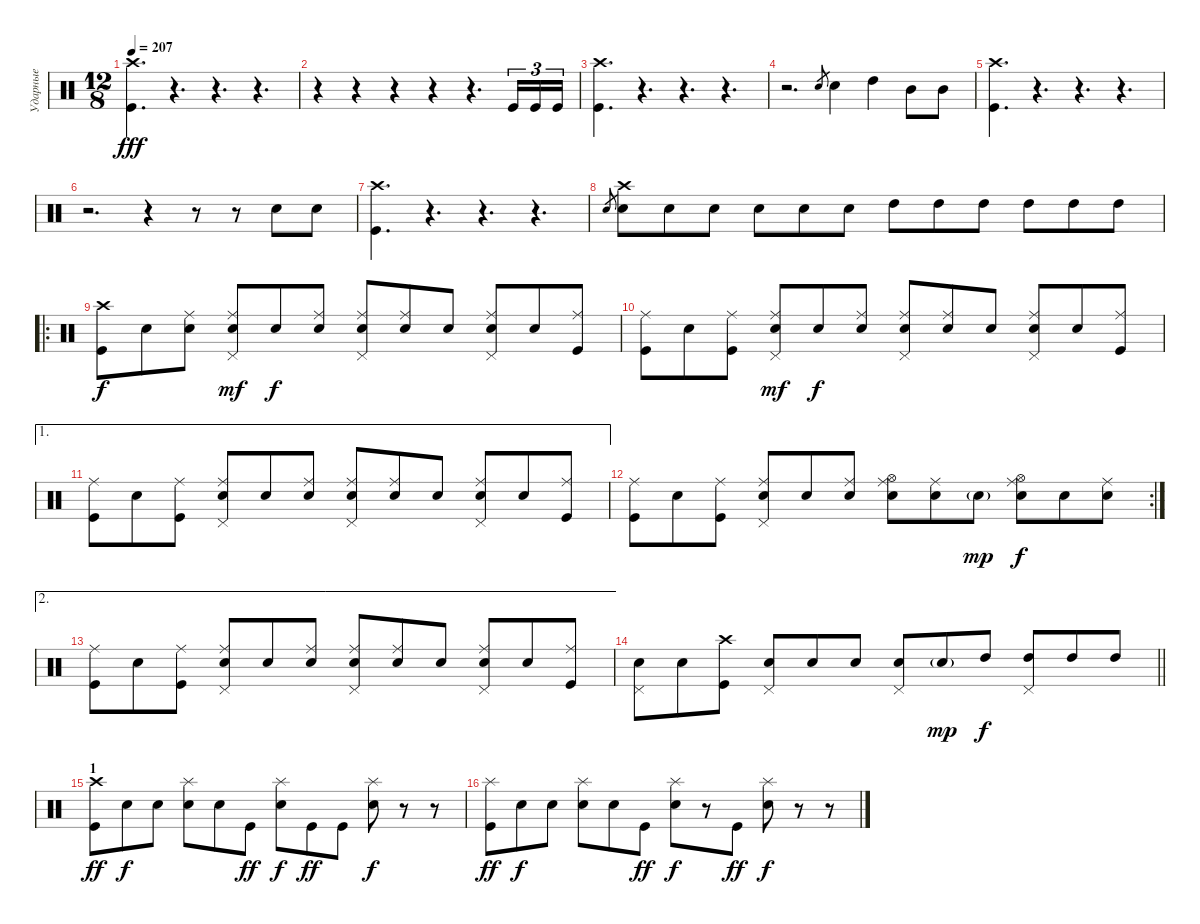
\track ("Ударные" "Ударные") {instrument percussion}
\staff {score}
\articulation defaults
\ts (12 8)
\tempo 207
\clef neutral
\ks c
("Crash high (hit)" "Kick (hit)").4{d dy fff} r.4{d} r.4{d} r.4{d} |
r.4 r.4 r.4 r.4 r.4{d} "Kick (hit)".16{tu (3 2)} "Kick (hit)".16{tu (3 2)} "Kick (hit)".16{tu (3 2)} |
("Crash high (hit)" "Kick (hit)").4{d} r.4{d} r.4{d} r.4{d} |
r.2{d} "Electric Snare (hit)".8{gr} "Electric Snare (hit)".4 "High Tom (hit)".4 "Mid Tom (hit)".8 "Mid Tom (hit)".8 |
("Crash high (hit)" "Kick (hit)").4{d} r.4{d} r.4{d} r.4{d} |
r.2{d} r.4 r.8 r.8 "Electric Snare (hit)".8 "Electric Snare (hit)".8 |
("Crash high (hit)" "Kick (hit)").4{d} r.4{d} r.4{d} r.4{d} |
"Electric Snare (hit)".8{gr} ("Crash high (hit)" "Electric Snare (hit)").8 "Electric Snare (hit)".8 "Electric Snare (hit)".8 "Electric Snare (hit)".8 "Electric Snare (hit)".8 "Electric Snare (hit)".8 "High Tom (hit)".8 "High Tom (hit)".8 "High Tom (hit)".8 "High Tom (hit)".8 "High Tom (hit)".8 "High Tom (hit)".8 |
\ro
("Crash high (hit)" "Kick (hit)").8{dy f} "Snare (hit)".8 ("Ride (middle)" "Snare (hit)").8 ("Ride (middle)" "Pedal Hi-Hat (hit)" "Snare (hit)").8{dy mf} "Snare (hit)".8{dy f} ("Ride (middle)" "Snare (hit)").8 ("Ride (middle)" "Pedal Hi-Hat (hit)" "Electric Snare (hit)").8 ("Ride (middle)" "Snare (hit)").8 "Snare (hit)".8 ("Ride (middle)" "Pedal Hi-Hat (hit)" "Snare (hit)").8 "Snare (hit)".8 ("Ride (middle)" "Kick (hit)").8 |
("Ride (middle)" "Kick (hit)").8 "Snare (hit)".8 ("Ride (middle)" "Kick (hit)").8 ("Ride (middle)" "Pedal Hi-Hat (hit)" "Snare (hit)").8{dy mf} "Snare (hit)".8{dy f} ("Ride (middle)" "Snare (hit)").8 ("Ride (middle)" "Pedal Hi-Hat (hit)" "Electric Snare (hit)").8 ("Ride (middle)" "Snare (hit)").8 "Snare (hit)".8 ("Ride (middle)" "Pedal Hi-Hat (hit)" "Snare (hit)").8 "Snare (hit)".8 ("Ride (middle)" "Kick (hit)").8 |
\ae 1
("Ride (middle)" "Kick (hit)").8 "Snare (hit)".8 ("Ride (middle)" "Kick (hit)").8 ("Ride (middle)" "Pedal Hi-Hat (hit)" "Snare (hit)").8 "Snare (hit)".8 ("Ride (middle)" "Snare (hit)").8 ("Ride (middle)" "Pedal Hi-Hat (hit)" "Electric Snare (hit)").8 ("Ride (middle)" "Snare (hit)").8 "Snare (hit)".8 ("Ride (middle)" "Pedal Hi-Hat (hit)" "Snare (hit)").8 "Snare (hit)".8 ("Ride (middle)" "Kick (hit)").8 |
\rc 2
("Ride (middle)" "Kick (hit)").8 "Snare (hit)".8 ("Ride (middle)" "Kick (hit)").8 ("Ride (middle)" "Pedal Hi-Hat (hit)" "Snare (hit)").8 "Snare (hit)".8 ("Ride (middle)" "Snare (hit)").8 ("Ride (middle)" "Hi-Hat (open)" "Electric Snare (hit)").8 ("Ride (middle)" "Snare (hit)").8 "Electric Snare (hit)"{g}.8{dy mp} ("Ride (middle)" "Hi-Hat (open)" "Electric Snare (hit)").8{dy f} "Electric Snare (hit)".8 ("Ride (middle)" "Electric Snare (hit)").8 |
\ae 2
("Ride (middle)" "Kick (hit)").8 "Snare (hit)".8 ("Ride (middle)" "Kick (hit)").8 ("Ride (middle)" "Pedal Hi-Hat (hit)" "Snare (hit)").8 "Snare (hit)".8 ("Ride (middle)" "Snare (hit)").8 ("Ride (middle)" "Pedal Hi-Hat (hit)" "Electric Snare (hit)").8 ("Ride (middle)" "Snare (hit)").8 "Snare (hit)".8 ("Ride (middle)" "Pedal Hi-Hat (hit)" "Snare (hit)").8 "Snare (hit)".8 ("Ride (middle)" "Kick (hit)").8 |
\barLineRight lightlight
("Pedal Hi-Hat (hit)" "Electric Snare (hit)").8 "Electric Snare (hit)".8 ("Crash high (hit)" "Kick (hit)").8 ("Pedal Hi-Hat (hit)" "Snare (hit)").8 "Snare (hit)".8 "Electric Snare (hit)".8 ("Pedal Hi-Hat (hit)" "Electric Snare (hit)").8 "Electric Snare (hit)"{g}.8{dy mp} "High Tom (hit)".8{dy f} ("Pedal Hi-Hat (hit)" "High Tom (hit)").8 "High Tom (hit)".8 "High Tom (hit)".8 |
\section ("" "1")
("Crash high (hit)" "Kick (hit)").8{dy ff} "Snare (hit)".8{dy f} "Snare (hit)".8 ("Splash (hit)" "Electric Snare (hit)").8 "Snare (hit)".8 "Kick (hit)".8{dy ff} ("Splash (hit)" "Snare (hit)").8{dy f} "Kick (hit)".8{dy ff} "Kick (hit)".8 ("Splash (hit)" "Electric Snare (hit)").8{dy f} r.8 r.8 |
("Splash (hit)" "Kick (hit)").8{dy ff} "Snare (hit)".8{dy f} "Snare (hit)".8 ("Splash (hit)" "Electric Snare (hit)").8 "Snare (hit)".8 "Kick (hit)".8{dy ff} ("Splash (hit)" "Snare (hit)").8{dy f} r.8 "Kick (hit)".8{dy ff} ("Splash (hit)" "Electric Snare (hit)").8{dy f} r.8 r.8
